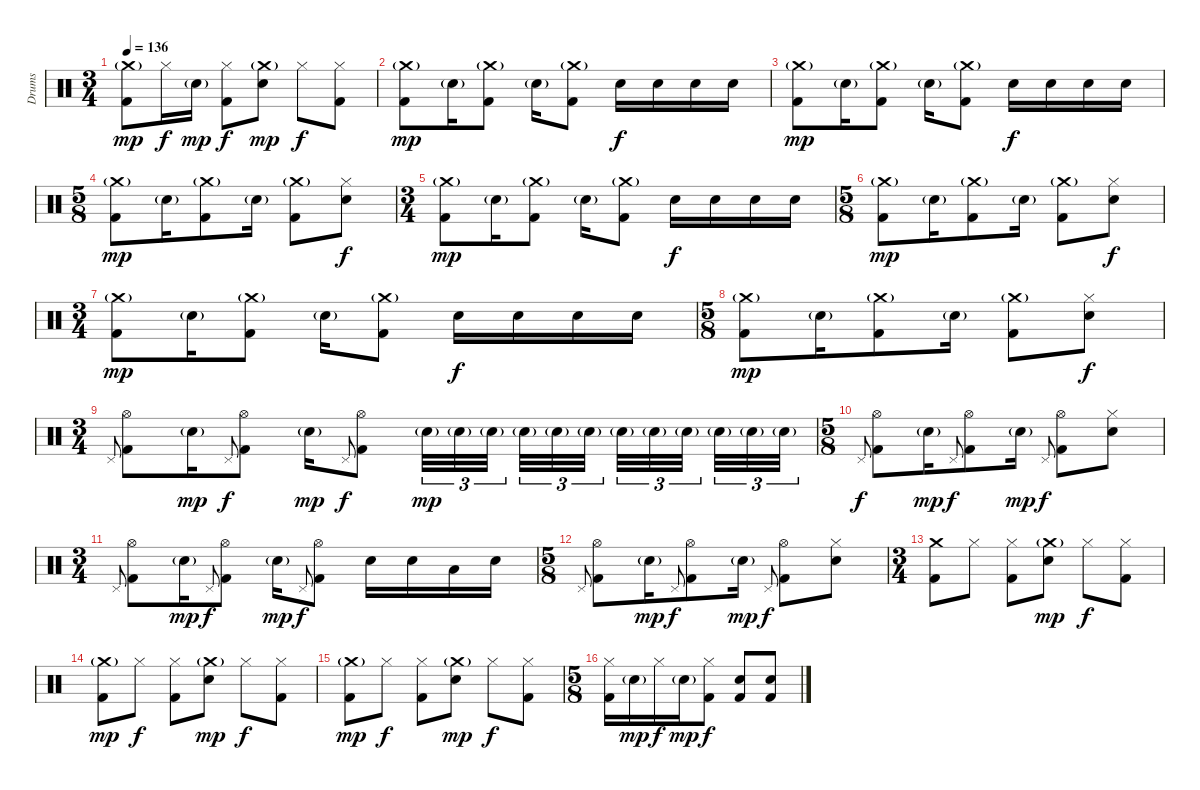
\track ("Drums" "Drums") {instrument percussion}
\staff {score}
\articulation defaults
\ts (3 4)
\tempo 136
\clef neutral
\ks c
("Crash medium (hit)"{g} "Kick (hit) 2").8{dy mp} "Hi-Hat (closed)".16{dy f} "Electric Snare (hit)"{g}.16{dy mp} ("Hi-Hat (closed)" "Kick (hit) 2").8{dy f} ("Crash medium (hit)"{g} "Electric Snare (hit)").8{dy mp} "Hi-Hat (closed)".8{dy f} ("Hi-Hat (closed)" "Kick (hit) 2").8 |
("Crash medium (hit)"{g} "Kick (hit) 2").8{dy mp} "Electric Snare (hit)"{g}.16 ("Crash medium (hit)"{g} "Kick (hit) 2").8 "Electric Snare (hit)"{g}.16 ("Crash medium (hit)"{g} "Kick (hit) 2").8 "Electric Snare (hit)".16{dy f} "Electric Snare (hit)".16 "Electric Snare (hit)".16 "Electric Snare (hit)".16 |
("Crash medium (hit)"{g} "Kick (hit) 2").8{dy mp} "Electric Snare (hit)"{g}.16 ("Crash medium (hit)"{g} "Kick (hit) 2").8 "Electric Snare (hit)"{g}.16 ("Crash medium (hit)"{g} "Kick (hit) 2").8 "Electric Snare (hit)".16{dy f} "Electric Snare (hit)".16 "Electric Snare (hit)".16 "Electric Snare (hit)".16 |
\ts (5 8)
("Crash medium (hit)"{g} "Kick (hit) 2").8{dy mp} "Electric Snare (hit)"{g}.16 ("Crash medium (hit)"{g} "Kick (hit) 2").8 "Electric Snare (hit)"{g}.16 ("Crash medium (hit)"{g} "Kick (hit) 2").8 ("Hi-Hat (closed)" "Electric Snare (hit)").8{dy f} |
\ts (3 4)
("Crash medium (hit)"{g} "Kick (hit) 2").8{dy mp} "Electric Snare (hit)"{g}.16 ("Crash medium (hit)"{g} "Kick (hit) 2").8 "Electric Snare (hit)"{g}.16 ("Crash medium (hit)"{g} "Kick (hit) 2").8 "Electric Snare (hit)".16{dy f} "Electric Snare (hit)".16 "Electric Snare (hit)".16 "Electric Snare (hit)".16 |
\ts (5 8)
("Crash medium (hit)"{g} "Kick (hit) 2").8{dy mp} "Electric Snare (hit)"{g}.16 ("Crash medium (hit)"{g} "Kick (hit) 2").8 "Electric Snare (hit)"{g}.16 ("Crash medium (hit)"{g} "Kick (hit) 2").8 ("Hi-Hat (closed)" "Electric Snare (hit)").8{dy f} |
\ts (3 4)
("Crash medium (hit)"{g} "Kick (hit) 2").8{dy mp} "Electric Snare (hit)"{g}.16 ("Crash medium (hit)"{g} "Kick (hit) 2").8 "Electric Snare (hit)"{g}.16 ("Crash medium (hit)"{g} "Kick (hit) 2").8 "Electric Snare (hit)".16{dy f} "Electric Snare (hit)".16 "Electric Snare (hit)".16 "Electric Snare (hit)".16 |
\ts (5 8)
("Crash medium (hit)"{g} "Kick (hit) 2").8{dy mp} "Electric Snare (hit)"{g}.16 ("Crash medium (hit)"{g} "Kick (hit) 2").8 "Electric Snare (hit)"{g}.16 ("Crash medium (hit)"{g} "Kick (hit) 2").8 ("Hi-Hat (closed)" "Electric Snare (hit)").8{dy f} |
\ts (3 4)
"Pedal Hi-Hat (hit)".8{gr onbeat} ("Hi-Hat (open)" "Kick (hit) 2").8 "Electric Snare (hit)"{g}.16{dy mp} "Pedal Hi-Hat (hit)".8{gr onbeat dy f} ("Hi-Hat (open)" "Kick (hit) 2").8 "Electric Snare (hit)"{g}.16{dy mp} "Pedal Hi-Hat (hit)".8{gr onbeat dy f} ("Hi-Hat (open)" "Kick (hit) 2").8 "Electric Snare (hit)"{g}.32{tu (3 2) dy mp} "Electric Snare (hit)"{g}.32{tu (3 2)} "Electric Snare (hit)"{g}.32{tu (3 2) beam splitsecondary} "Electric Snare (hit)"{g}.32{tu (3 2)} "Electric Snare (hit)"{g}.32{tu (3 2)} "Electric Snare (hit)"{g}.32{tu (3 2) beam splitsecondary} "Electric Snare (hit)"{g}.32{tu (3 2)} "Electric Snare (hit)"{g}.32{tu (3 2)} "Electric Snare (hit)"{g}.32{tu (3 2) beam splitsecondary} "Electric Snare (hit)"{g}.32{tu (3 2)} "Electric Snare (hit)"{g}.32{tu (3 2)} "Electric Snare (hit)"{g}.32{tu (3 2)} |
\ts (5 8)
"Pedal Hi-Hat (hit)".8{gr onbeat dy f} ("Hi-Hat (open)" "Kick (hit) 2").8 "Electric Snare (hit)"{g}.16{dy mp} "Pedal Hi-Hat (hit)".8{gr onbeat dy f} ("Hi-Hat (open)" "Kick (hit) 2").8 "Electric Snare (hit)"{g}.16{dy mp} "Pedal Hi-Hat (hit)".8{gr onbeat dy f} ("Hi-Hat (open)" "Kick (hit) 2").8 ("Hi-Hat (closed)" "Electric Snare (hit)").8 |
\ts (3 4)
"Pedal Hi-Hat (hit)".8{gr onbeat} ("Hi-Hat (open)" "Kick (hit) 2").8 "Electric Snare (hit)"{g}.16{dy mp} "Pedal Hi-Hat (hit)".8{gr onbeat dy f} ("Hi-Hat (open)" "Kick (hit) 2").8 "Electric Snare (hit)"{g}.16{dy mp} "Pedal Hi-Hat (hit)".8{gr onbeat dy f} ("Hi-Hat (open)" "Kick (hit) 2").8 "Electric Snare (hit)".16 "Electric Snare (hit)".16 "Low Tom (hit)".16 "Electric Snare (hit)".16 |
\ts (5 8)
"Pedal Hi-Hat (hit)".8{gr onbeat} ("Hi-Hat (open)" "Kick (hit) 2").8 "Electric Snare (hit)"{g}.16{dy mp} "Pedal Hi-Hat (hit)".8{gr onbeat dy f} ("Hi-Hat (open)" "Kick (hit) 2").8 "Electric Snare (hit)"{g}.16{dy mp} "Pedal Hi-Hat (hit)".8{gr onbeat dy f} ("Hi-Hat (open)" "Kick (hit) 2").8 ("Hi-Hat (closed)" "Electric Snare (hit)").8 |
\ts (3 4)
("Crash medium (hit)" "Kick (hit) 2").8 "Hi-Hat (closed)".8 ("Hi-Hat (closed)" "Kick (hit) 2").8 ("Crash medium (hit)"{g} "Electric Snare (hit)").8{dy mp} "Hi-Hat (closed)".8{dy f} ("Hi-Hat (closed)" "Kick (hit) 2").8 |
("Crash medium (hit)"{g} "Kick (hit) 2").8{dy mp} "Hi-Hat (closed)".8{dy f} ("Hi-Hat (closed)" "Kick (hit) 2").8 ("Crash medium (hit)"{g} "Electric Snare (hit)").8{dy mp} "Hi-Hat (closed)".8{dy f} ("Hi-Hat (closed)" "Kick (hit) 2").8 |
("Crash medium (hit)"{g} "Kick (hit) 2").8{dy mp} "Hi-Hat (closed)".8{dy f} ("Hi-Hat (closed)" "Kick (hit) 2").8 ("Crash medium (hit)"{g} "Electric Snare (hit)").8{dy mp} "Hi-Hat (closed)".8{dy f} ("Hi-Hat (closed)" "Kick (hit) 2").8 |
\ts (5 8)
("Hi-Hat (closed)" "Kick (hit) 2").16 "Electric Snare (hit)"{g}.16{dy mp} "Hi-Hat (closed)".16{dy f} "Electric Snare (hit)"{g}.16{dy mp} ("Hi-Hat (closed)" "Kick (hit) 2").8{dy f} ("Electric Snare (hit)" "Kick (hit) 2").8 ("Electric Snare (hit)" "Kick (hit) 2").8
